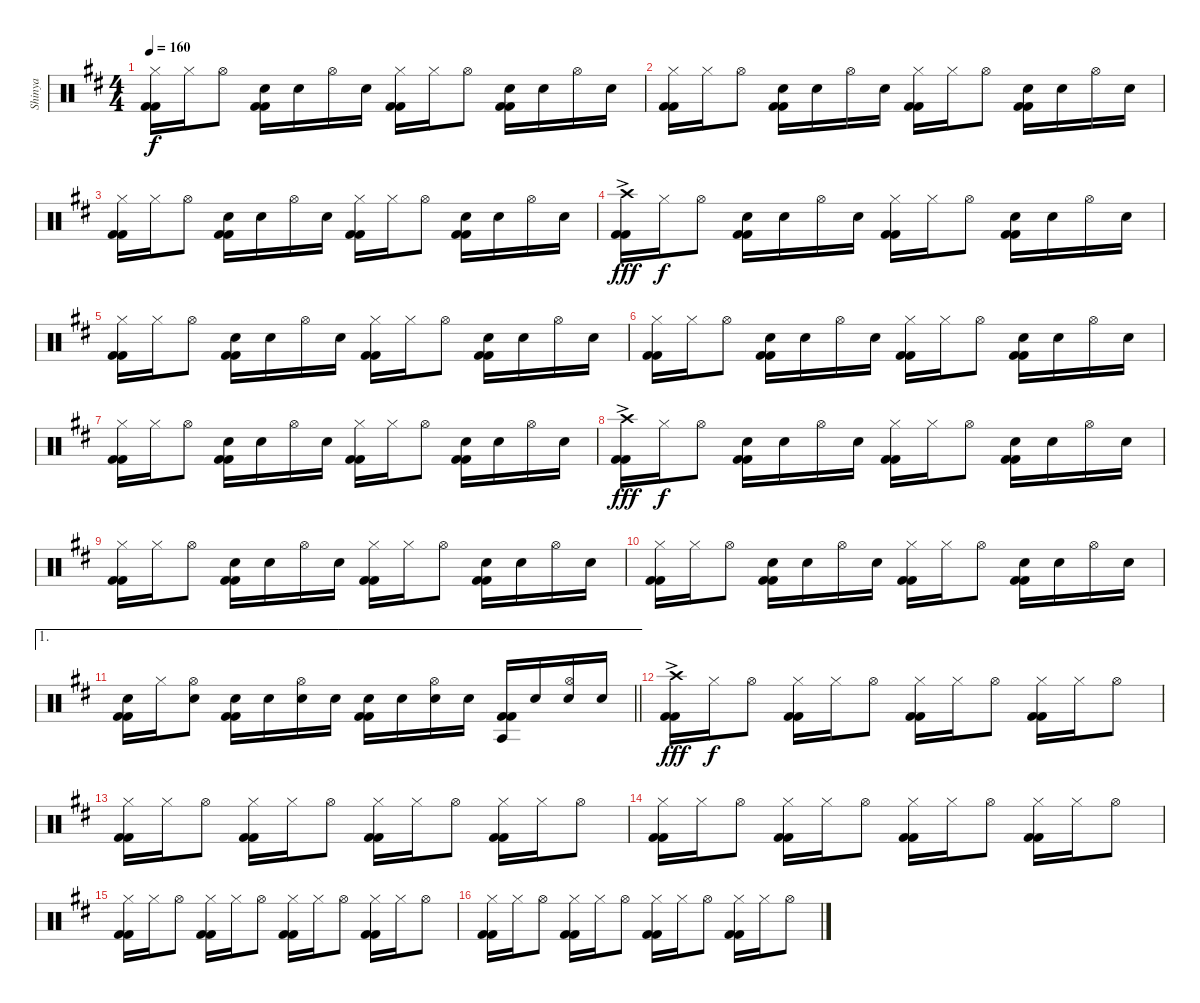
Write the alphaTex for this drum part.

\track ("Shinya " "Shinya ") {instrument percussion}
\staff {score}
\articulation defaults
\ts (4 4)
\tempo 160
\clef neutral
\ks d
("Hi-Hat (closed)" "Kick (hit) 2" "Kick (hit) 2").16{dy f} "Hi-Hat (closed)".16 "Hi-Hat (open)".8 ("Snare (hit) 2" "Kick (hit) 2" "Kick (hit) 2").16 "Snare (hit) 2".16 "Hi-Hat (open)".16 "Snare (hit) 2".16 ("Hi-Hat (closed)" "Kick (hit) 2" "Kick (hit) 2").16 "Hi-Hat (closed)".16 "Hi-Hat (open)".8 ("Snare (hit) 2" "Kick (hit) 2" "Kick (hit) 2").16 "Snare (hit) 2".16 "Hi-Hat (open)".16 "Snare (hit) 2".16 |
("Hi-Hat (closed)" "Kick (hit) 2" "Kick (hit) 2").16 "Hi-Hat (closed)".16 "Hi-Hat (open)".8 ("Snare (hit) 2" "Kick (hit) 2" "Kick (hit) 2").16 "Snare (hit) 2".16 "Hi-Hat (open)".16 "Snare (hit) 2".16 ("Hi-Hat (closed)" "Kick (hit) 2" "Kick (hit) 2").16 "Hi-Hat (closed)".16 "Hi-Hat (open)".8 ("Snare (hit) 2" "Kick (hit) 2" "Kick (hit) 2").16 "Snare (hit) 2".16 "Hi-Hat (open)".16 "Snare (hit) 2".16 |
("Hi-Hat (closed)" "Kick (hit) 2" "Kick (hit) 2").16 "Hi-Hat (closed)".16 "Hi-Hat (open)".8 ("Snare (hit) 2" "Kick (hit) 2" "Kick (hit) 2").16 "Snare (hit) 2".16 "Hi-Hat (open)".16 "Snare (hit) 2".16 ("Hi-Hat (closed)" "Kick (hit) 2" "Kick (hit) 2").16 "Hi-Hat (closed)".16 "Hi-Hat (open)".8 ("Snare (hit) 2" "Kick (hit) 2" "Kick (hit) 2").16 "Snare (hit) 2".16 "Hi-Hat (open)".16 "Snare (hit) 2".16 |
("Crash high (hit)"{ac} "Kick (hit) 2" "Kick (hit) 2").16{dy fff} "Hi-Hat (closed)".16{dy f} "Hi-Hat (open)".8 ("Snare (hit) 2" "Kick (hit) 2" "Kick (hit) 2").16 "Snare (hit) 2".16 "Hi-Hat (open)".16 "Snare (hit) 2".16 ("Hi-Hat (closed)" "Kick (hit) 2" "Kick (hit) 2").16 "Hi-Hat (closed)".16 "Hi-Hat (open)".8 ("Snare (hit) 2" "Kick (hit) 2" "Kick (hit) 2").16 "Snare (hit) 2".16 "Hi-Hat (open)".16 "Snare (hit) 2".16 |
("Hi-Hat (closed)" "Kick (hit) 2" "Kick (hit) 2").16 "Hi-Hat (closed)".16 "Hi-Hat (open)".8 ("Snare (hit) 2" "Kick (hit) 2" "Kick (hit) 2").16 "Snare (hit) 2".16 "Hi-Hat (open)".16 "Snare (hit) 2".16 ("Hi-Hat (closed)" "Kick (hit) 2" "Kick (hit) 2").16 "Hi-Hat (closed)".16 "Hi-Hat (open)".8 ("Snare (hit) 2" "Kick (hit) 2" "Kick (hit) 2").16 "Snare (hit) 2".16 "Hi-Hat (open)".16 "Snare (hit) 2".16 |
("Hi-Hat (closed)" "Kick (hit) 2" "Kick (hit) 2").16 "Hi-Hat (closed)".16 "Hi-Hat (open)".8 ("Snare (hit) 2" "Kick (hit) 2" "Kick (hit) 2").16 "Snare (hit) 2".16 "Hi-Hat (open)".16 "Snare (hit) 2".16 ("Hi-Hat (closed)" "Kick (hit) 2" "Kick (hit) 2").16 "Hi-Hat (closed)".16 "Hi-Hat (open)".8 ("Snare (hit) 2" "Kick (hit) 2" "Kick (hit) 2").16 "Snare (hit) 2".16 "Hi-Hat (open)".16 "Snare (hit) 2".16 |
("Hi-Hat (closed)" "Kick (hit) 2" "Kick (hit) 2").16 "Hi-Hat (closed)".16 "Hi-Hat (open)".8 ("Snare (hit) 2" "Kick (hit) 2" "Kick (hit) 2").16 "Snare (hit) 2".16 "Hi-Hat (open)".16 "Snare (hit) 2".16 ("Hi-Hat (closed)" "Kick (hit) 2" "Kick (hit) 2").16 "Hi-Hat (closed)".16 "Hi-Hat (open)".8 ("Snare (hit) 2" "Kick (hit) 2" "Kick (hit) 2").16 "Snare (hit) 2".16 "Hi-Hat (open)".16 "Snare (hit) 2".16 |
("Crash high (hit)"{ac} "Kick (hit) 2" "Kick (hit) 2").16{dy fff} "Hi-Hat (closed)".16{dy f} "Hi-Hat (open)".8 ("Snare (hit) 2" "Kick (hit) 2" "Kick (hit) 2").16 "Snare (hit) 2".16 "Hi-Hat (open)".16 "Snare (hit) 2".16 ("Hi-Hat (closed)" "Kick (hit) 2" "Kick (hit) 2").16 "Hi-Hat (closed)".16 "Hi-Hat (open)".8 ("Snare (hit) 2" "Kick (hit) 2" "Kick (hit) 2").16 "Snare (hit) 2".16 "Hi-Hat (open)".16 "Snare (hit) 2".16 |
("Hi-Hat (closed)" "Kick (hit) 2" "Kick (hit) 2").16 "Hi-Hat (closed)".16 "Hi-Hat (open)".8 ("Snare (hit) 2" "Kick (hit) 2" "Kick (hit) 2").16 "Snare (hit) 2".16 "Hi-Hat (open)".16 "Snare (hit) 2".16 ("Hi-Hat (closed)" "Kick (hit) 2" "Kick (hit) 2").16 "Hi-Hat (closed)".16 "Hi-Hat (open)".8 ("Snare (hit) 2" "Kick (hit) 2" "Kick (hit) 2").16 "Snare (hit) 2".16 "Hi-Hat (open)".16 "Snare (hit) 2".16 |
("Hi-Hat (closed)" "Kick (hit) 2" "Kick (hit) 2").16 "Hi-Hat (closed)".16 "Hi-Hat (open)".8 ("Snare (hit) 2" "Kick (hit) 2" "Kick (hit) 2").16 "Snare (hit) 2".16 "Hi-Hat (open)".16 "Snare (hit) 2".16 ("Hi-Hat (closed)" "Kick (hit) 2" "Kick (hit) 2").16 "Hi-Hat (closed)".16 "Hi-Hat (open)".8 ("Snare (hit) 2" "Kick (hit) 2" "Kick (hit) 2").16 "Snare (hit) 2".16 "Hi-Hat (open)".16 "Snare (hit) 2".16 |
\ae 1
\barLineRight lightlight
("Snare (hit) 2" "Kick (hit) 2" "Kick (hit) 2").16 "Hi-Hat (closed)".16 ("Hi-Hat (open)" "Snare (hit) 2").8 ("Snare (hit) 2" "Kick (hit) 2" "Kick (hit) 2").16 "Snare (hit) 2".16 ("Hi-Hat (open)" "Snare (hit) 2").16 "Snare (hit) 2".16 ("Snare (hit) 2" "Kick (hit) 2" "Kick (hit) 2").16 "Snare (hit) 2".16 ("Hi-Hat (open)" "Snare (hit) 2").16 "Snare (hit) 2".16 ("Agogo tow (hit)" "Kick (hit) 2" "Kick (hit) 2").16 "Snare (hit) 2".16 ("Hi-Hat (open)" "Snare (hit) 2").16 "Snare (hit) 2".16 |
("Crash high (hit)"{ac} "Kick (hit) 2" "Kick (hit) 2").16{dy fff} "Hi-Hat (closed)".16{dy f} "Hi-Hat (open)".8 ("Hi-Hat (closed)" "Kick (hit) 2" "Kick (hit) 2").16 "Hi-Hat (closed)".16 "Hi-Hat (open)".8 ("Hi-Hat (closed)" "Kick (hit) 2" "Kick (hit) 2").16 "Hi-Hat (closed)".16 "Hi-Hat (open)".8 ("Hi-Hat (closed)" "Kick (hit) 2" "Kick (hit) 2").16 "Hi-Hat (closed)".16 "Hi-Hat (open)".8 |
("Hi-Hat (closed)" "Kick (hit) 2" "Kick (hit) 2").16 "Hi-Hat (closed)".16 "Hi-Hat (open)".8 ("Hi-Hat (closed)" "Kick (hit) 2" "Kick (hit) 2").16 "Hi-Hat (closed)".16 "Hi-Hat (open)".8 ("Hi-Hat (closed)" "Kick (hit) 2" "Kick (hit) 2").16 "Hi-Hat (closed)".16 "Hi-Hat (open)".8 ("Hi-Hat (closed)" "Kick (hit) 2" "Kick (hit) 2").16 "Hi-Hat (closed)".16 "Hi-Hat (open)".8 |
("Hi-Hat (closed)" "Kick (hit) 2" "Kick (hit) 2").16 "Hi-Hat (closed)".16 "Hi-Hat (open)".8 ("Hi-Hat (closed)" "Kick (hit) 2" "Kick (hit) 2").16 "Hi-Hat (closed)".16 "Hi-Hat (open)".8 ("Hi-Hat (closed)" "Kick (hit) 2" "Kick (hit) 2").16 "Hi-Hat (closed)".16 "Hi-Hat (open)".8 ("Hi-Hat (closed)" "Kick (hit) 2" "Kick (hit) 2").16 "Hi-Hat (closed)".16 "Hi-Hat (open)".8 |
("Hi-Hat (closed)" "Kick (hit) 2" "Kick (hit) 2").16 "Hi-Hat (closed)".16 "Hi-Hat (open)".8 ("Hi-Hat (closed)" "Kick (hit) 2" "Kick (hit) 2").16 "Hi-Hat (closed)".16 "Hi-Hat (open)".8 ("Hi-Hat (closed)" "Kick (hit) 2" "Kick (hit) 2").16 "Hi-Hat (closed)".16 "Hi-Hat (open)".8 ("Hi-Hat (closed)" "Kick (hit) 2" "Kick (hit) 2").16 "Hi-Hat (closed)".16 "Hi-Hat (open)".8 |
("Hi-Hat (closed)" "Kick (hit) 2" "Kick (hit) 2").16 "Hi-Hat (closed)".16 "Hi-Hat (open)".8 ("Hi-Hat (closed)" "Kick (hit) 2" "Kick (hit) 2").16 "Hi-Hat (closed)".16 "Hi-Hat (open)".8 ("Hi-Hat (closed)" "Kick (hit) 2" "Kick (hit) 2").16 "Hi-Hat (closed)".16 "Hi-Hat (open)".8 ("Hi-Hat (closed)" "Kick (hit) 2" "Kick (hit) 2").16 "Hi-Hat (closed)".16 "Hi-Hat (open)".8
